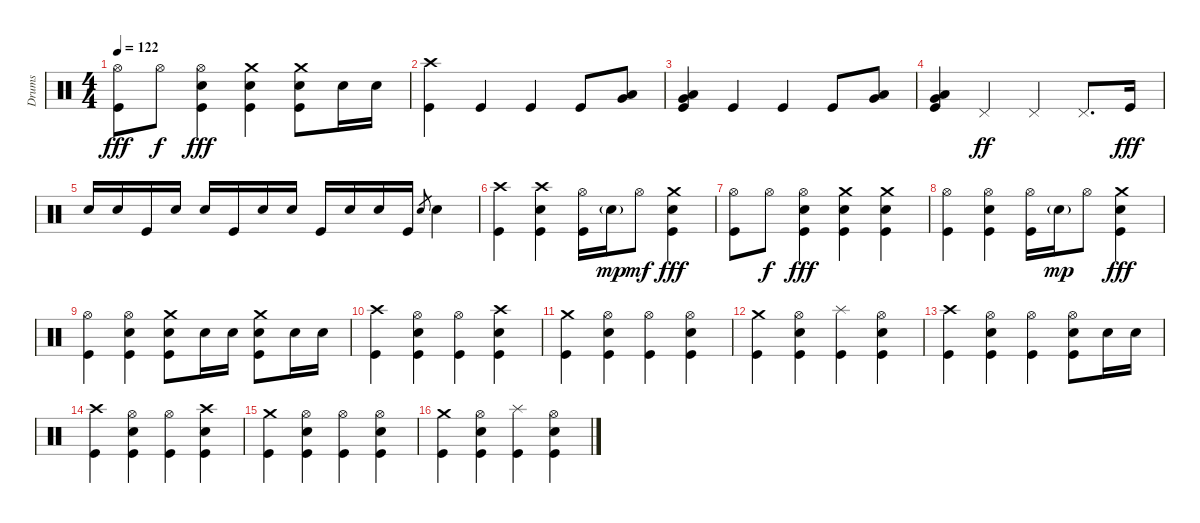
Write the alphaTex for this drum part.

\track ("Drums" "Drums") {instrument percussion}
\staff {score}
\articulation defaults
\ts (4 4)
\tempo 122
\clef neutral
\ks c
("Hi-Hat (open)" "Kick (hit)").8{dy fff} "Hi-Hat (open)".8{dy f} ("Hi-Hat (open)" "Snare (hit) 2" "Kick (hit)").4{dy fff} ("Crash medium (hit)" "Snare (hit) 2" "Kick (hit)").4 ("Crash medium (hit)" "Snare (hit) 2" "Kick (hit)").8 "Snare (hit) 2".16 "Snare (hit) 2".16 |
("Crash high (hit)" "Kick (hit)").4 "Kick (hit)".4 "Kick (hit)".4 "Kick (hit)".8 ("Low Tom (hit)" "Very Low Tom (hit)").8 |
("Low Tom (hit)" "Very Low Tom (hit)" "Kick (hit)").4 "Kick (hit)".4 "Kick (hit)".4 "Kick (hit)".8 ("Low Tom (hit)" "Very Low Tom (hit)").8 |
("Low Tom (hit)" "Very Low Tom (hit)" "Kick (hit)").4 "Pedal Hi-Hat (hit)".4{dy ff} "Pedal Hi-Hat (hit)".4 "Pedal Hi-Hat (hit)".8{d} "Kick (hit)".16{dy fff} |
"Snare (hit) 2".16 "Snare (hit) 2".16 "Kick (hit)".16 "Snare (hit) 2".16 "Snare (hit) 2".16 "Kick (hit)".16 "Snare (hit) 2".16 "Snare (hit) 2".16 "Kick (hit)".16 "Snare (hit) 2".16 "Snare (hit) 2".16 "Kick (hit)".16 "Snare (hit) 2".8{gr} "Snare (hit) 2".4 |
("Crash high (hit)" "Kick (hit)").4 ("Crash high (hit)" "Snare (hit) 2" "Kick (hit)").4 ("Hi-Hat (open)" "Kick (hit)").16 "Snare (hit) 2"{g}.16{dy mp} "Hi-Hat (open)".8{dy mf} ("Crash medium (hit)" "Snare (hit) 2" "Kick (hit)").4{dy fff} |
("Hi-Hat (open)" "Kick (hit)").8 "Hi-Hat (open)".8{dy f} ("Hi-Hat (open)" "Snare (hit) 2" "Kick (hit)").4{dy fff} ("Crash medium (hit)" "Snare (hit) 2" "Kick (hit)").4 ("Crash medium (hit)" "Snare (hit) 2" "Kick (hit)").4 |
("Hi-Hat (open)" "Kick (hit)").4 ("Hi-Hat (open)" "Snare (hit) 2" "Kick (hit)").4 ("Hi-Hat (open)" "Kick (hit)").16 "Snare (hit) 2"{g}.16{dy mp} "Hi-Hat (open)".8 ("Crash medium (hit)" "Snare (hit) 2" "Kick (hit)").4{dy fff} |
("Hi-Hat (open)" "Kick (hit)").4 ("Hi-Hat (open)" "Snare (hit) 2" "Kick (hit)").4 ("Crash medium (hit)" "Snare (hit) 2" "Kick (hit)").8 "Snare (hit) 2".16 "Snare (hit) 2".16 ("Crash medium (hit)" "Snare (hit) 2" "Kick (hit)").8 "Snare (hit) 2".16 "Snare (hit) 2".16 |
("Crash high (hit)" "Kick (hit)").4 ("Hi-Hat (open)" "Snare (hit) 2" "Kick (hit)").4 ("Hi-Hat (open)" "Kick (hit)").4 ("Crash high (hit)" "Snare (hit) 2" "Kick (hit)").4 |
("Crash medium (hit)" "Kick (hit)").4 ("Hi-Hat (open)" "Snare (hit) 2" "Kick (hit)").4 ("Hi-Hat (open)" "Kick (hit)").4 ("Hi-Hat (open)" "Snare (hit) 2" "Kick (hit)").4 |
("Crash medium (hit)" "Kick (hit)").4 ("Hi-Hat (open)" "Snare (hit) 2" "Kick (hit)").4 ("Splash (hit)" "Kick (hit)").4 ("Hi-Hat (open)" "Snare (hit) 2" "Kick (hit)").4 |
("Crash high (hit)" "Kick (hit)").4 ("Hi-Hat (open)" "Snare (hit) 2" "Kick (hit)").4 ("Hi-Hat (open)" "Kick (hit)").4 ("Hi-Hat (open)" "Snare (hit) 2" "Kick (hit)").8 "Snare (hit) 2".16 "Snare (hit) 2".16 |
("Crash high (hit)" "Kick (hit)").4 ("Hi-Hat (open)" "Snare (hit) 2" "Kick (hit)").4 ("Hi-Hat (open)" "Kick (hit)").4 ("Crash high (hit)" "Snare (hit) 2" "Kick (hit)").4 |
("Crash medium (hit)" "Kick (hit)").4 ("Hi-Hat (open)" "Snare (hit) 2" "Kick (hit)").4 ("Hi-Hat (open)" "Kick (hit)").4 ("Hi-Hat (open)" "Snare (hit) 2" "Kick (hit)").4 |
("Crash medium (hit)" "Kick (hit)").4 ("Hi-Hat (open)" "Snare (hit) 2" "Kick (hit)").4 ("Splash (hit)" "Kick (hit)").4 ("Hi-Hat (open)" "Snare (hit) 2" "Kick (hit)").4
